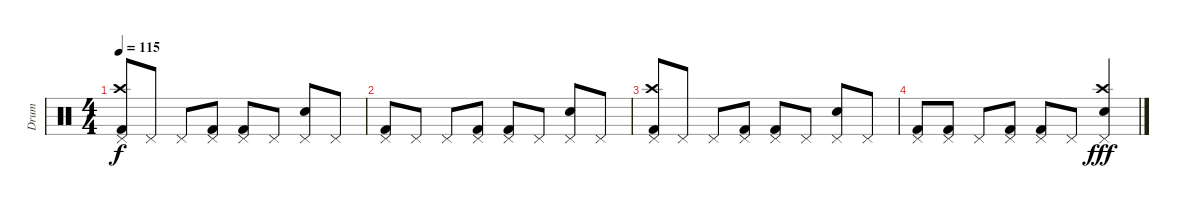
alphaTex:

\track ("Drum" "Drum") {instrument percussion}
\staff {score}
\articulation defaults
\ts (4 4)
\tempo 115
\clef neutral
\ks c
("Pedal Hi-Hat (hit)" "Crash high (hit)" "Kick (hit) 2").8{dy f} "Pedal Hi-Hat (hit)".8 "Pedal Hi-Hat (hit)".8 ("Pedal Hi-Hat (hit)" "Kick (hit) 2").8 ("Pedal Hi-Hat (hit)" "Kick (hit) 2").8 "Pedal Hi-Hat (hit)".8 ("Pedal Hi-Hat (hit)" "Electric Snare (hit)").8 "Pedal Hi-Hat (hit)".8 |
("Pedal Hi-Hat (hit)" "Kick (hit) 2").8 "Pedal Hi-Hat (hit)".8 "Pedal Hi-Hat (hit)".8 ("Pedal Hi-Hat (hit)" "Kick (hit) 2").8 ("Pedal Hi-Hat (hit)" "Kick (hit) 2").8 "Pedal Hi-Hat (hit)".8 ("Pedal Hi-Hat (hit)" "Electric Snare (hit)").8 "Pedal Hi-Hat (hit)".8 |
("Pedal Hi-Hat (hit)" "Crash high (hit)" "Kick (hit) 2").8 "Pedal Hi-Hat (hit)".8 "Pedal Hi-Hat (hit)".8 ("Pedal Hi-Hat (hit)" "Kick (hit) 2").8 ("Pedal Hi-Hat (hit)" "Kick (hit) 2").8 "Pedal Hi-Hat (hit)".8 ("Pedal Hi-Hat (hit)" "Electric Snare (hit)").8 "Pedal Hi-Hat (hit)".8 |
("Pedal Hi-Hat (hit)" "Kick (hit) 2").8 ("Pedal Hi-Hat (hit)" "Kick (hit) 2").8 "Pedal Hi-Hat (hit)".8 ("Pedal Hi-Hat (hit)" "Kick (hit) 2").8 ("Pedal Hi-Hat (hit)" "Kick (hit) 2").8 "Pedal Hi-Hat (hit)".8 ("Pedal Hi-Hat (hit)" "Crash high (hit)" "Electric Snare (hit)").4{dy fff}
